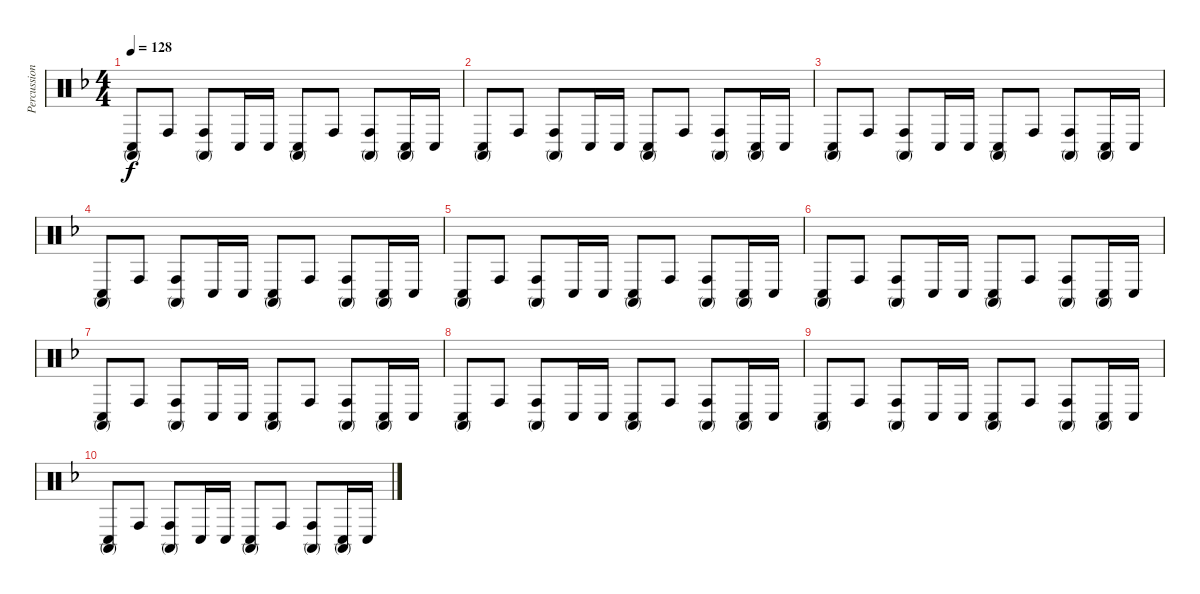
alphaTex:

\track ("Percussion" "Percussion") {instrument percussion}
\staff {score}
\articulation defaults
\ts (4 4)
\tempo 128
\clef neutral
\ks f
("Conga high (mute)" "Conga low (hit)").8{dy f} "Conga high (hit)".8 ("Conga high (mute)" "Conga high (hit)").8 "Conga low (hit)".16 "Conga low (hit)".16 ("Conga high (mute)" "Conga low (hit)").8 "Conga high (hit)".8 ("Conga high (mute)" "Conga high (hit)").8 ("Conga high (mute)" "Conga low (hit)").16 "Conga low (hit)".16 |
("Conga high (mute)" "Conga low (hit)").8 "Conga high (hit)".8 ("Conga high (mute)" "Conga high (hit)").8 "Conga low (hit)".16 "Conga low (hit)".16 ("Conga high (mute)" "Conga low (hit)").8 "Conga high (hit)".8 ("Conga high (mute)" "Conga high (hit)").8 ("Conga high (mute)" "Conga low (hit)").16 "Conga low (hit)".16 |
("Conga high (mute)" "Conga low (hit)").8 "Conga high (hit)".8 ("Conga high (mute)" "Conga high (hit)").8 "Conga low (hit)".16 "Conga low (hit)".16 ("Conga high (mute)" "Conga low (hit)").8 "Conga high (hit)".8 ("Conga high (mute)" "Conga high (hit)").8 ("Conga high (mute)" "Conga low (hit)").16 "Conga low (hit)".16 |
("Conga high (mute)" "Conga low (hit)").8 "Conga high (hit)".8 ("Conga high (mute)" "Conga high (hit)").8 "Conga low (hit)".16 "Conga low (hit)".16 ("Conga high (mute)" "Conga low (hit)").8 "Conga high (hit)".8 ("Conga high (mute)" "Conga high (hit)").8 ("Conga high (mute)" "Conga low (hit)").16 "Conga low (hit)".16 |
("Conga high (mute)" "Conga low (hit)").8 "Conga high (hit)".8 ("Conga high (mute)" "Conga high (hit)").8 "Conga low (hit)".16 "Conga low (hit)".16 ("Conga high (mute)" "Conga low (hit)").8 "Conga high (hit)".8 ("Conga high (mute)" "Conga high (hit)").8 ("Conga high (mute)" "Conga low (hit)").16 "Conga low (hit)".16 |
("Conga high (mute)" "Conga low (hit)").8 "Conga high (hit)".8 ("Conga high (mute)" "Conga high (hit)").8 "Conga low (hit)".16 "Conga low (hit)".16 ("Conga high (mute)" "Conga low (hit)").8 "Conga high (hit)".8 ("Conga high (mute)" "Conga high (hit)").8 ("Conga high (mute)" "Conga low (hit)").16 "Conga low (hit)".16 |
("Conga high (mute)" "Conga low (hit)").8 "Conga high (hit)".8 ("Conga high (mute)" "Conga high (hit)").8 "Conga low (hit)".16 "Conga low (hit)".16 ("Conga high (mute)" "Conga low (hit)").8 "Conga high (hit)".8 ("Conga high (mute)" "Conga high (hit)").8 ("Conga high (mute)" "Conga low (hit)").16 "Conga low (hit)".16 |
("Conga high (mute)" "Conga low (hit)").8 "Conga high (hit)".8 ("Conga high (mute)" "Conga high (hit)").8 "Conga low (hit)".16 "Conga low (hit)".16 ("Conga high (mute)" "Conga low (hit)").8 "Conga high (hit)".8 ("Conga high (mute)" "Conga high (hit)").8 ("Conga high (mute)" "Conga low (hit)").16 "Conga low (hit)".16 |
("Conga high (mute)" "Conga low (hit)").8 "Conga high (hit)".8 ("Conga high (mute)" "Conga high (hit)").8 "Conga low (hit)".16 "Conga low (hit)".16 ("Conga high (mute)" "Conga low (hit)").8 "Conga high (hit)".8 ("Conga high (mute)" "Conga high (hit)").8 ("Conga high (mute)" "Conga low (hit)").16 "Conga low (hit)".16 |
("Conga high (mute)" "Conga low (hit)").8 "Conga high (hit)".8 ("Conga high (mute)" "Conga high (hit)").8 "Conga low (hit)".16 "Conga low (hit)".16 ("Conga high (mute)" "Conga low (hit)").8 "Conga high (hit)".8 ("Conga high (mute)" "Conga high (hit)").8 ("Conga high (mute)" "Conga low (hit)").16 "Conga low (hit)".16
